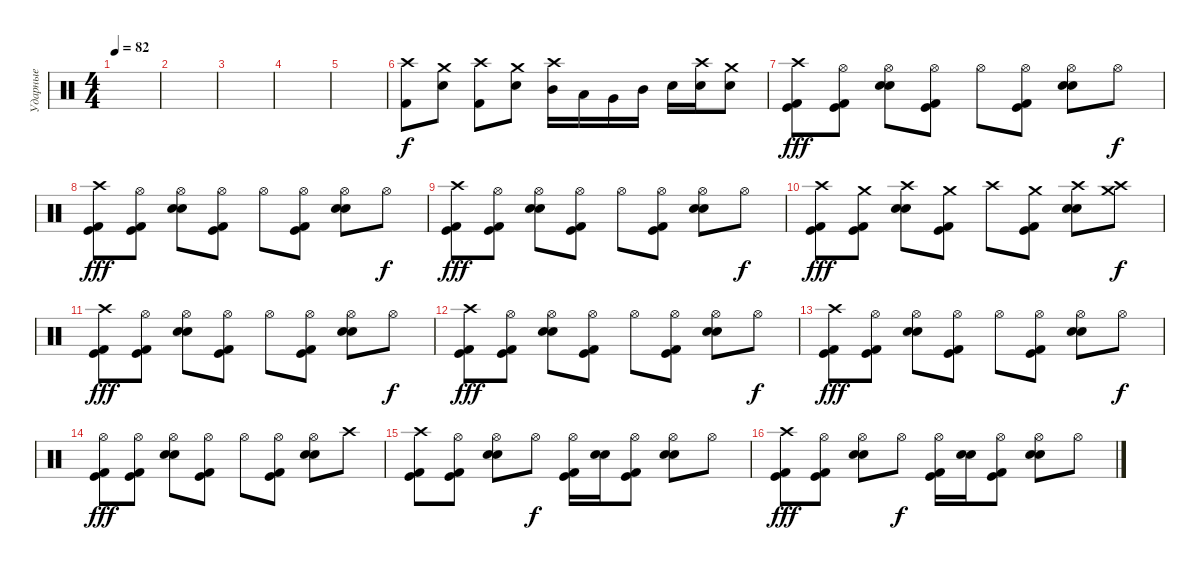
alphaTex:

\track ("Ударные" "Ударные") {instrument percussion}
\staff {score}
\articulation defaults
\ts (4 4)
\tempo 82
\clef neutral
\ks c
|
|
|
|
|
("Crash high (hit)" "Kick (hit) 2").8 ("Crash medium (hit)" "Snare (hit) 2").8 ("Crash high (hit)" "Kick (hit) 2").8 ("Crash medium (hit)" "Snare (hit) 2").8 ("Mid Tom (hit)" "Crash high (hit)").16 "Low Tom (hit)".16 "Very Low Tom (hit)".16 "Mid Tom (hit)".16 "Snare (hit) 2".16 ("Snare (hit) 2" "Crash high (hit)").16 ("Snare (hit) 2" "Crash medium (hit)").8 |
("Crash high (hit)" "Kick (hit) 2" "Kick (hit)").8{dy fff} ("Hi-Hat (open)" "Kick (hit) 2" "Kick (hit)").8 ("Hi-Hat (open)" "Electric Snare (hit)" "Snare (hit) 2").8 ("Hi-Hat (open)" "Kick (hit) 2" "Kick (hit)").8 "Hi-Hat (open)".8 ("Hi-Hat (open)" "Kick (hit) 2" "Kick (hit)").8 ("Hi-Hat (open)" "Electric Snare (hit)" "Snare (hit) 2").8 "Hi-Hat (open)".8{dy f} |
("Crash high (hit)" "Kick (hit) 2" "Kick (hit)").8{dy fff} ("Hi-Hat (open)" "Kick (hit) 2" "Kick (hit)").8 ("Hi-Hat (open)" "Electric Snare (hit)" "Snare (hit) 2").8 ("Hi-Hat (open)" "Kick (hit) 2" "Kick (hit)").8 "Hi-Hat (open)".8 ("Hi-Hat (open)" "Kick (hit) 2" "Kick (hit)").8 ("Hi-Hat (open)" "Electric Snare (hit)" "Snare (hit) 2").8 "Hi-Hat (open)".8{dy f} |
("Crash high (hit)" "Kick (hit) 2" "Kick (hit)").8{dy fff} ("Hi-Hat (open)" "Kick (hit) 2" "Kick (hit)").8 ("Hi-Hat (open)" "Electric Snare (hit)" "Snare (hit) 2").8 ("Hi-Hat (open)" "Kick (hit) 2" "Kick (hit)").8 "Hi-Hat (open)".8 ("Hi-Hat (open)" "Kick (hit) 2" "Kick (hit)").8 ("Hi-Hat (open)" "Electric Snare (hit)" "Snare (hit) 2").8 "Hi-Hat (open)".8{dy f} |
("Crash high (hit)" "Kick (hit) 2" "Kick (hit)").8{dy fff} ("Crash medium (hit)" "Kick (hit) 2" "Kick (hit)").8 ("Crash high (hit)" "Electric Snare (hit)" "Snare (hit) 2").8 ("Crash medium (hit)" "Kick (hit) 2" "Kick (hit)").8 "Crash high (hit)".8 ("Crash medium (hit)" "Kick (hit) 2" "Kick (hit)").8 ("Crash high (hit)" "Electric Snare (hit)" "Snare (hit) 2").8 ("Crash medium (hit)" "Crash high (hit)").8{dy f} |
("Crash high (hit)" "Kick (hit) 2" "Kick (hit)").8{dy fff} ("Hi-Hat (open)" "Kick (hit) 2" "Kick (hit)").8 ("Hi-Hat (open)" "Electric Snare (hit)" "Snare (hit) 2").8 ("Hi-Hat (open)" "Kick (hit) 2" "Kick (hit)").8 "Hi-Hat (open)".8 ("Hi-Hat (open)" "Kick (hit) 2" "Kick (hit)").8 ("Hi-Hat (open)" "Electric Snare (hit)" "Snare (hit) 2").8 "Hi-Hat (open)".8{dy f} |
("Crash high (hit)" "Kick (hit) 2" "Kick (hit)").8{dy fff} ("Hi-Hat (open)" "Kick (hit) 2" "Kick (hit)").8 ("Hi-Hat (open)" "Electric Snare (hit)" "Snare (hit) 2").8 ("Hi-Hat (open)" "Kick (hit) 2" "Kick (hit)").8 "Hi-Hat (open)".8 ("Hi-Hat (open)" "Kick (hit) 2" "Kick (hit)").8 ("Hi-Hat (open)" "Electric Snare (hit)" "Snare (hit) 2").8 "Hi-Hat (open)".8{dy f} |
("Crash high (hit)" "Kick (hit) 2" "Kick (hit)").8{dy fff} ("Hi-Hat (open)" "Kick (hit) 2" "Kick (hit)").8 ("Hi-Hat (open)" "Electric Snare (hit)" "Snare (hit) 2").8 ("Hi-Hat (open)" "Kick (hit) 2" "Kick (hit)").8 "Hi-Hat (open)".8 ("Hi-Hat (open)" "Kick (hit) 2" "Kick (hit)").8 ("Hi-Hat (open)" "Electric Snare (hit)" "Snare (hit) 2").8 "Hi-Hat (open)".8{dy f} |
("Hi-Hat (open)" "Kick (hit) 2" "Kick (hit)").8{dy fff} ("Hi-Hat (open)" "Kick (hit) 2" "Kick (hit)").8 ("Hi-Hat (open)" "Electric Snare (hit)" "Snare (hit) 2").8 ("Hi-Hat (open)" "Kick (hit) 2" "Kick (hit)").8 "Hi-Hat (open)".8 ("Hi-Hat (open)" "Kick (hit) 2" "Kick (hit)").8 ("Hi-Hat (open)" "Electric Snare (hit)" "Snare (hit) 2").8 "Crash high (hit)".8 |
("Crash high (hit)" "Kick (hit) 2" "Kick (hit)").8 ("Hi-Hat (open)" "Kick (hit) 2" "Kick (hit)").8 ("Hi-Hat (open)" "Electric Snare (hit)" "Snare (hit) 2").8 "Hi-Hat (open)".8{dy f} ("Hi-Hat (open)" "Kick (hit)" "Kick (hit) 2").16 ("Electric Snare (hit)" "Snare (hit) 2").16 ("Hi-Hat (open)" "Kick (hit)" "Kick (hit) 2").8 ("Hi-Hat (open)" "Electric Snare (hit)" "Snare (hit) 2").8 "Hi-Hat (open)".8 |
("Crash high (hit)" "Kick (hit) 2" "Kick (hit)").8{dy fff} ("Hi-Hat (open)" "Kick (hit) 2" "Kick (hit)").8 ("Hi-Hat (open)" "Electric Snare (hit)" "Snare (hit) 2").8 "Hi-Hat (open)".8{dy f} ("Hi-Hat (open)" "Kick (hit)" "Kick (hit) 2").16 ("Electric Snare (hit)" "Snare (hit) 2").16 ("Hi-Hat (open)" "Kick (hit)" "Kick (hit) 2").8 ("Hi-Hat (open)" "Electric Snare (hit)" "Snare (hit) 2").8 "Hi-Hat (open)".8
